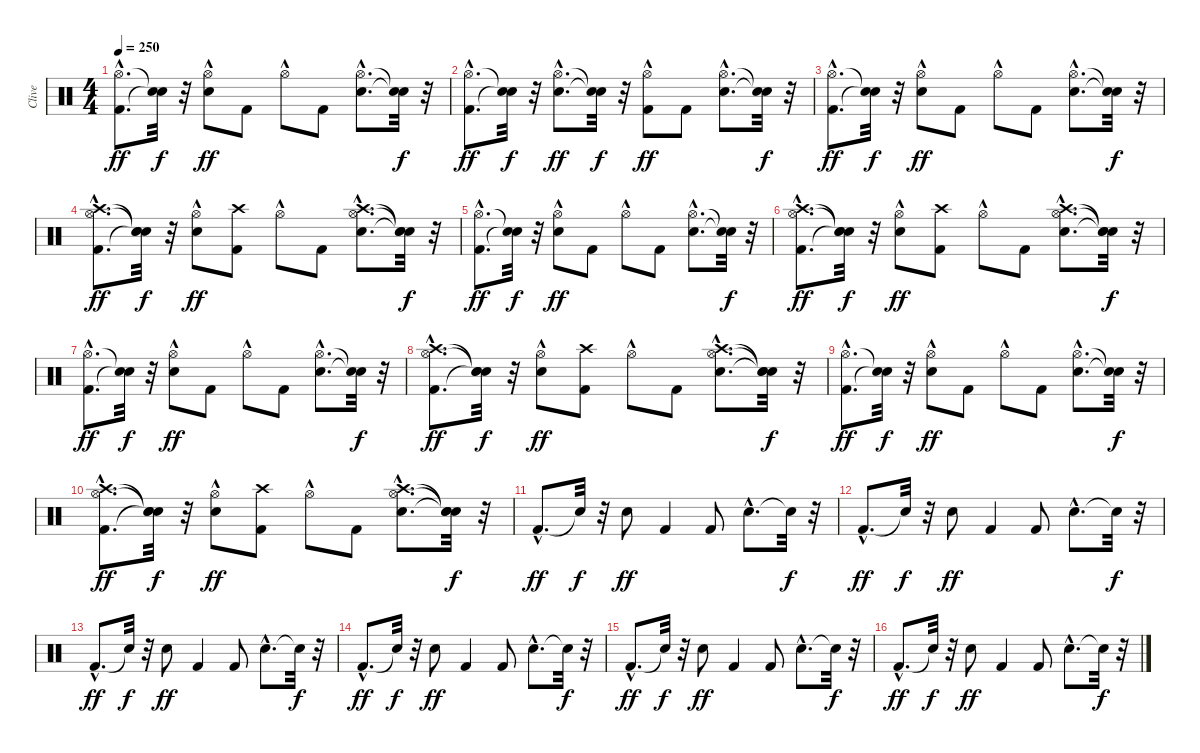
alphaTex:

\track ("Clive" "Clive") {instrument percussion}
\staff {score}
\articulation defaults
\ts (4 4)
\tempo 250
\clef neutral
\ks c
("Kick (hit) 2"{hac} "Hi-Hat (open)"{hac}).8{d dy ff} ("Snare (hit)"{t} "Snare (hit)"{t}).32{dy f} r.32 ("Snare (hit) 2" "Hi-Hat (open)"{hac}).8{dy ff} "Kick (hit) 2".8 "Hi-Hat (open)"{hac}.8 "Kick (hit) 2".8 ("Snare (hit) 2"{hac} "Hi-Hat (open)"{hac}).8{d} ("Snare (hit)"{t} "Snare (hit)"{t}).32{dy f} r.32 |
("Kick (hit) 2"{hac} "Hi-Hat (open)"{hac}).8{d dy ff} ("Snare (hit)"{t} "Snare (hit)"{t}).32{dy f} r.32 ("Snare (hit) 2"{hac} "Hi-Hat (open)"{hac}).8{d dy ff} ("Snare (hit)"{t} "Snare (hit)"{t}).32{dy f} r.32 ("Kick (hit) 2" "Hi-Hat (open)"{hac}).8{dy ff} "Kick (hit) 2".8 ("Snare (hit) 2"{hac} "Hi-Hat (open)"{hac}).8{d} ("Snare (hit)"{t} "Snare (hit)"{t}).32{dy f} r.32 |
("Kick (hit) 2"{hac} "Hi-Hat (open)"{hac}).8{d dy ff} ("Snare (hit)"{t} "Snare (hit)"{t}).32{dy f} r.32 ("Snare (hit) 2" "Hi-Hat (open)"{hac}).8{dy ff} "Kick (hit) 2".8 "Hi-Hat (open)"{hac}.8 "Kick (hit) 2".8 ("Snare (hit) 2"{hac} "Hi-Hat (open)"{hac}).8{d} ("Snare (hit)"{t} "Snare (hit)"{t}).32{dy f} r.32 |
("Kick (hit) 2"{hac} "Hi-Hat (open)"{hac} "Crash high (hit)"{hac}).8{d dy ff} ("Snare (hit)"{t} "Snare (hit)"{t} "Snare (hit)"{t}).32{dy f} r.32 ("Snare (hit) 2" "Hi-Hat (open)"{hac}).8{dy ff} ("Kick (hit) 2" "Crash high (hit)").8 "Hi-Hat (open)"{hac}.8 "Kick (hit) 2".8 ("Snare (hit) 2"{hac} "Hi-Hat (open)"{hac} "Crash high (hit)"{hac}).8{d} ("Snare (hit)"{t} "Snare (hit)"{t} "Snare (hit)"{t}).32{dy f} r.32 |
("Kick (hit) 2"{hac} "Hi-Hat (open)"{hac}).8{d dy ff} ("Snare (hit)"{t} "Snare (hit)"{t}).32{dy f} r.32 ("Snare (hit) 2" "Hi-Hat (open)"{hac}).8{dy ff} "Kick (hit) 2".8 "Hi-Hat (open)"{hac}.8 "Kick (hit) 2".8 ("Snare (hit) 2"{hac} "Hi-Hat (open)"{hac}).8{d} ("Snare (hit)"{t} "Snare (hit)"{t}).32{dy f} r.32 |
("Kick (hit) 2"{hac} "Hi-Hat (open)"{hac} "Crash high (hit)"{hac}).8{d dy ff} ("Snare (hit)"{t} "Snare (hit)"{t} "Snare (hit)"{t}).32{dy f} r.32 ("Snare (hit) 2" "Hi-Hat (open)"{hac}).8{dy ff} ("Kick (hit) 2" "Crash high (hit)").8 "Hi-Hat (open)"{hac}.8 "Kick (hit) 2".8 ("Snare (hit) 2"{hac} "Hi-Hat (open)"{hac} "Crash high (hit)"{hac}).8{d} ("Snare (hit)"{t} "Snare (hit)"{t} "Snare (hit)"{t}).32{dy f} r.32 |
("Kick (hit) 2"{hac} "Hi-Hat (open)"{hac}).8{d dy ff} ("Snare (hit)"{t} "Snare (hit)"{t}).32{dy f} r.32 ("Snare (hit) 2" "Hi-Hat (open)"{hac}).8{dy ff} "Kick (hit) 2".8 "Hi-Hat (open)"{hac}.8 "Kick (hit) 2".8 ("Snare (hit) 2"{hac} "Hi-Hat (open)"{hac}).8{d} ("Snare (hit)"{t} "Snare (hit)"{t}).32{dy f} r.32 |
("Kick (hit) 2"{hac} "Hi-Hat (open)"{hac} "Crash high (hit)"{hac}).8{d dy ff} ("Snare (hit)"{t} "Snare (hit)"{t} "Snare (hit)"{t}).32{dy f} r.32 ("Snare (hit) 2" "Hi-Hat (open)"{hac}).8{dy ff} ("Kick (hit) 2" "Crash high (hit)").8 "Hi-Hat (open)"{hac}.8 "Kick (hit) 2".8 ("Snare (hit) 2"{hac} "Hi-Hat (open)"{hac} "Crash high (hit)"{hac}).8{d} ("Snare (hit)"{t} "Snare (hit)"{t} "Snare (hit)"{t}).32{dy f} r.32 |
("Kick (hit) 2"{hac} "Hi-Hat (open)"{hac}).8{d dy ff} ("Snare (hit)"{t} "Snare (hit)"{t}).32{dy f} r.32 ("Snare (hit) 2" "Hi-Hat (open)"{hac}).8{dy ff} "Kick (hit) 2".8 "Hi-Hat (open)"{hac}.8 "Kick (hit) 2".8 ("Snare (hit) 2"{hac} "Hi-Hat (open)"{hac}).8{d} ("Snare (hit)"{t} "Snare (hit)"{t}).32{dy f} r.32 |
("Kick (hit) 2"{hac} "Hi-Hat (open)"{hac} "Crash high (hit)"{hac}).8{d dy ff} ("Snare (hit)"{t} "Snare (hit)"{t} "Snare (hit)"{t}).32{dy f} r.32 ("Snare (hit) 2" "Hi-Hat (open)"{hac}).8{dy ff} ("Kick (hit) 2" "Crash high (hit)").8 "Hi-Hat (open)"{hac}.8 "Kick (hit) 2".8 ("Snare (hit) 2"{hac} "Hi-Hat (open)"{hac} "Crash high (hit)"{hac}).8{d} ("Snare (hit)"{t} "Snare (hit)"{t} "Snare (hit)"{t}).32{dy f} r.32 |
"Kick (hit) 2"{hac}.8{d dy ff} "Snare (hit)"{t}.32{dy f} r.32 "Snare (hit) 2".8{dy ff} "Kick (hit) 2".4 "Kick (hit) 2".8 "Snare (hit) 2"{hac}.8{d} "Snare (hit)"{t}.32{dy f} r.32 |
"Kick (hit) 2"{hac}.8{d dy ff} "Snare (hit)"{t}.32{dy f} r.32 "Snare (hit) 2".8{dy ff} "Kick (hit) 2".4 "Kick (hit) 2".8 "Snare (hit) 2"{hac}.8{d} "Snare (hit)"{t}.32{dy f} r.32 |
"Kick (hit) 2"{hac}.8{d dy ff} "Snare (hit)"{t}.32{dy f} r.32 "Snare (hit) 2".8{dy ff} "Kick (hit) 2".4 "Kick (hit) 2".8 "Snare (hit) 2"{hac}.8{d} "Snare (hit)"{t}.32{dy f} r.32 |
"Kick (hit) 2"{hac}.8{d dy ff} "Snare (hit)"{t}.32{dy f} r.32 "Snare (hit) 2".8{dy ff} "Kick (hit) 2".4 "Kick (hit) 2".8 "Snare (hit) 2"{hac}.8{d} "Snare (hit)"{t}.32{dy f} r.32 |
"Kick (hit) 2"{hac}.8{d dy ff} "Snare (hit)"{t}.32{dy f} r.32 "Snare (hit) 2".8{dy ff} "Kick (hit) 2".4 "Kick (hit) 2".8 "Snare (hit) 2"{hac}.8{d} "Snare (hit)"{t}.32{dy f} r.32 |
"Kick (hit) 2"{hac}.8{d dy ff} "Snare (hit)"{t}.32{dy f} r.32 "Snare (hit) 2".8{dy ff} "Kick (hit) 2".4 "Kick (hit) 2".8 "Snare (hit) 2"{hac}.8{d} "Snare (hit)"{t}.32{dy f} r.32
